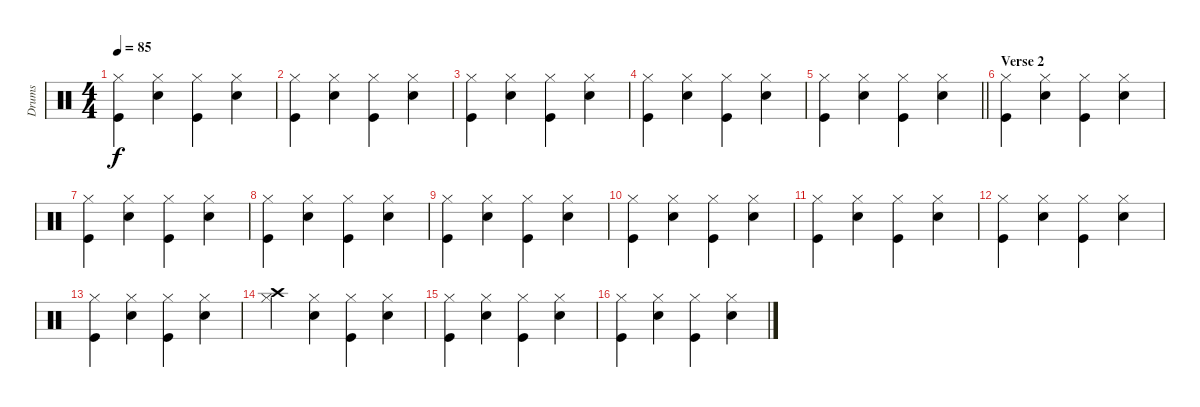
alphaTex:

\track ("Drums" "Drums") {instrument percussion}
\staff {score}
\articulation defaults
\ts (4 4)
\tempo 85
\clef neutral
\ks c
("Kick (hit)" "Hi-Hat (closed)").4{dy f} ("Snare (hit) 2" "Hi-Hat (closed)").4 ("Kick (hit)" "Hi-Hat (closed)").4 ("Snare (hit) 2" "Hi-Hat (closed)").4 |
("Kick (hit)" "Hi-Hat (closed)").4 ("Snare (hit) 2" "Hi-Hat (closed)").4 ("Kick (hit)" "Hi-Hat (closed)").4 ("Snare (hit) 2" "Hi-Hat (closed)").4 |
("Kick (hit)" "Hi-Hat (closed)").4 ("Snare (hit) 2" "Hi-Hat (closed)").4 ("Kick (hit)" "Hi-Hat (closed)").4 ("Snare (hit) 2" "Hi-Hat (closed)").4 |
("Kick (hit)" "Hi-Hat (closed)").4 ("Snare (hit) 2" "Hi-Hat (closed)").4 ("Kick (hit)" "Hi-Hat (closed)").4 ("Snare (hit) 2" "Hi-Hat (closed)").4 |
\barLineRight lightlight
("Kick (hit)" "Hi-Hat (closed)").4 ("Snare (hit) 2" "Hi-Hat (closed)").4 ("Kick (hit)" "Hi-Hat (closed)").4 ("Snare (hit) 2" "Hi-Hat (closed)").4 |
\section ("" "Verse 2")
("Kick (hit)" "Hi-Hat (closed)").4 ("Snare (hit) 2" "Hi-Hat (closed)").4 ("Kick (hit)" "Hi-Hat (closed)").4 ("Snare (hit) 2" "Hi-Hat (closed)").4 |
("Kick (hit)" "Hi-Hat (closed)").4 ("Snare (hit) 2" "Hi-Hat (closed)").4 ("Kick (hit)" "Hi-Hat (closed)").4 ("Snare (hit) 2" "Hi-Hat (closed)").4 |
("Kick (hit)" "Hi-Hat (closed)").4 ("Snare (hit) 2" "Hi-Hat (closed)").4 ("Kick (hit)" "Hi-Hat (closed)").4 ("Snare (hit) 2" "Hi-Hat (closed)").4 |
("Kick (hit)" "Hi-Hat (closed)").4 ("Snare (hit) 2" "Hi-Hat (closed)").4 ("Kick (hit)" "Hi-Hat (closed)").4 ("Snare (hit) 2" "Hi-Hat (closed)").4 |
("Kick (hit)" "Hi-Hat (closed)").4 ("Snare (hit) 2" "Hi-Hat (closed)").4 ("Kick (hit)" "Hi-Hat (closed)").4 ("Snare (hit) 2" "Hi-Hat (closed)").4 |
("Kick (hit)" "Hi-Hat (closed)").4 ("Snare (hit) 2" "Hi-Hat (closed)").4 ("Kick (hit)" "Hi-Hat (closed)").4 ("Snare (hit) 2" "Hi-Hat (closed)").4 |
("Kick (hit)" "Hi-Hat (closed)").4 ("Snare (hit) 2" "Hi-Hat (closed)").4 ("Kick (hit)" "Hi-Hat (closed)").4 ("Snare (hit) 2" "Hi-Hat (closed)").4 |
("Kick (hit)" "Hi-Hat (closed)").4 ("Snare (hit) 2" "Hi-Hat (closed)").4 ("Kick (hit)" "Hi-Hat (closed)").4 ("Snare (hit) 2" "Hi-Hat (closed)").4 |
("Crash high (hit)" "Hi-Hat (closed)").4 ("Snare (hit) 2" "Hi-Hat (closed)").4 ("Kick (hit)" "Hi-Hat (closed)").4 ("Snare (hit) 2" "Hi-Hat (closed)").4 |
("Kick (hit)" "Hi-Hat (closed)").4 ("Snare (hit) 2" "Hi-Hat (closed)").4 ("Kick (hit)" "Hi-Hat (closed)").4 ("Snare (hit) 2" "Hi-Hat (closed)").4 |
("Kick (hit)" "Hi-Hat (closed)").4 ("Snare (hit) 2" "Hi-Hat (closed)").4 ("Kick (hit)" "Hi-Hat (closed)").4 ("Snare (hit) 2" "Hi-Hat (closed)").4
